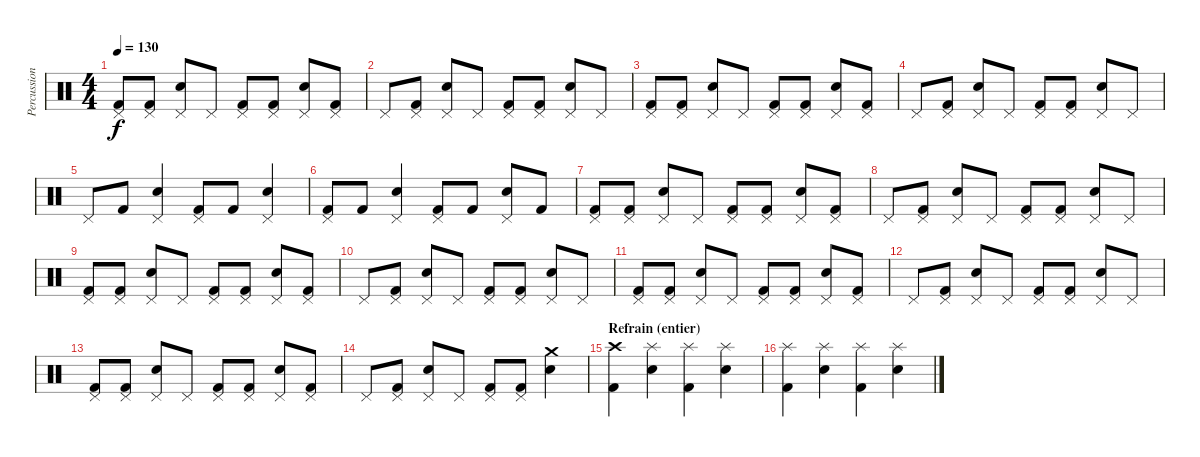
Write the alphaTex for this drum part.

\track ("Percussions" "Percussion") {instrument percussion}
\staff {score}
\articulation defaults
\ts (4 4)
\tempo 130
\clef neutral
\ks c
("Pedal Hi-Hat (hit)" "Kick (hit) 2").8{dy f} ("Pedal Hi-Hat (hit)" "Kick (hit) 2").8 ("Pedal Hi-Hat (hit)" "Electric Snare (hit)").8 "Pedal Hi-Hat (hit)".8 ("Pedal Hi-Hat (hit)" "Kick (hit) 2").8 ("Pedal Hi-Hat (hit)" "Kick (hit) 2").8 ("Pedal Hi-Hat (hit)" "Electric Snare (hit)").8 ("Pedal Hi-Hat (hit)" "Kick (hit) 2").8 |
"Pedal Hi-Hat (hit)".8 ("Pedal Hi-Hat (hit)" "Kick (hit) 2").8 ("Pedal Hi-Hat (hit)" "Electric Snare (hit)").8 "Pedal Hi-Hat (hit)".8 ("Pedal Hi-Hat (hit)" "Kick (hit) 2").8 ("Pedal Hi-Hat (hit)" "Kick (hit) 2").8 ("Pedal Hi-Hat (hit)" "Electric Snare (hit)").8 "Pedal Hi-Hat (hit)".8 |
("Pedal Hi-Hat (hit)" "Kick (hit) 2").8 ("Pedal Hi-Hat (hit)" "Kick (hit) 2").8 ("Pedal Hi-Hat (hit)" "Electric Snare (hit)").8 "Pedal Hi-Hat (hit)".8 ("Pedal Hi-Hat (hit)" "Kick (hit) 2").8 ("Pedal Hi-Hat (hit)" "Kick (hit) 2").8 ("Pedal Hi-Hat (hit)" "Electric Snare (hit)").8 ("Pedal Hi-Hat (hit)" "Kick (hit) 2").8 |
"Pedal Hi-Hat (hit)".8 ("Pedal Hi-Hat (hit)" "Kick (hit) 2").8 ("Pedal Hi-Hat (hit)" "Electric Snare (hit)").8 "Pedal Hi-Hat (hit)".8 ("Pedal Hi-Hat (hit)" "Kick (hit) 2").8 ("Pedal Hi-Hat (hit)" "Kick (hit) 2").8 ("Pedal Hi-Hat (hit)" "Electric Snare (hit)").8 "Pedal Hi-Hat (hit)".8 |
"Pedal Hi-Hat (hit)".8 "Kick (hit) 2".8 ("Pedal Hi-Hat (hit)" "Electric Snare (hit)").4 ("Pedal Hi-Hat (hit)" "Kick (hit) 2").8 "Kick (hit) 2".8 ("Pedal Hi-Hat (hit)" "Electric Snare (hit)").4 |
("Pedal Hi-Hat (hit)" "Kick (hit) 2").8 "Kick (hit) 2".8 ("Pedal Hi-Hat (hit)" "Electric Snare (hit)").4 ("Pedal Hi-Hat (hit)" "Kick (hit) 2").8 "Kick (hit) 2".8 ("Pedal Hi-Hat (hit)" "Electric Snare (hit)").8 "Kick (hit) 2".8 |
("Pedal Hi-Hat (hit)" "Kick (hit) 2").8 ("Pedal Hi-Hat (hit)" "Kick (hit) 2").8 ("Pedal Hi-Hat (hit)" "Electric Snare (hit)").8 "Pedal Hi-Hat (hit)".8 ("Pedal Hi-Hat (hit)" "Kick (hit) 2").8 ("Pedal Hi-Hat (hit)" "Kick (hit) 2").8 ("Pedal Hi-Hat (hit)" "Electric Snare (hit)").8 ("Pedal Hi-Hat (hit)" "Kick (hit) 2").8 |
"Pedal Hi-Hat (hit)".8 ("Pedal Hi-Hat (hit)" "Kick (hit) 2").8 ("Pedal Hi-Hat (hit)" "Electric Snare (hit)").8 "Pedal Hi-Hat (hit)".8 ("Pedal Hi-Hat (hit)" "Kick (hit) 2").8 ("Pedal Hi-Hat (hit)" "Kick (hit) 2").8 ("Pedal Hi-Hat (hit)" "Electric Snare (hit)").8 "Pedal Hi-Hat (hit)".8 |
("Pedal Hi-Hat (hit)" "Kick (hit) 2").8 ("Pedal Hi-Hat (hit)" "Kick (hit) 2").8 ("Pedal Hi-Hat (hit)" "Electric Snare (hit)").8 "Pedal Hi-Hat (hit)".8 ("Pedal Hi-Hat (hit)" "Kick (hit) 2").8 ("Pedal Hi-Hat (hit)" "Kick (hit) 2").8 ("Pedal Hi-Hat (hit)" "Electric Snare (hit)").8 ("Pedal Hi-Hat (hit)" "Kick (hit) 2").8 |
"Pedal Hi-Hat (hit)".8 ("Pedal Hi-Hat (hit)" "Kick (hit) 2").8 ("Pedal Hi-Hat (hit)" "Electric Snare (hit)").8 "Pedal Hi-Hat (hit)".8 ("Pedal Hi-Hat (hit)" "Kick (hit) 2").8 ("Pedal Hi-Hat (hit)" "Kick (hit) 2").8 ("Pedal Hi-Hat (hit)" "Electric Snare (hit)").8 "Pedal Hi-Hat (hit)".8 |
("Pedal Hi-Hat (hit)" "Kick (hit) 2").8 ("Pedal Hi-Hat (hit)" "Kick (hit) 2").8 ("Pedal Hi-Hat (hit)" "Electric Snare (hit)").8 "Pedal Hi-Hat (hit)".8 ("Pedal Hi-Hat (hit)" "Kick (hit) 2").8 ("Pedal Hi-Hat (hit)" "Kick (hit) 2").8 ("Pedal Hi-Hat (hit)" "Electric Snare (hit)").8 ("Pedal Hi-Hat (hit)" "Kick (hit) 2").8 |
"Pedal Hi-Hat (hit)".8 ("Pedal Hi-Hat (hit)" "Kick (hit) 2").8 ("Pedal Hi-Hat (hit)" "Electric Snare (hit)").8 "Pedal Hi-Hat (hit)".8 ("Pedal Hi-Hat (hit)" "Kick (hit) 2").8 ("Pedal Hi-Hat (hit)" "Kick (hit) 2").8 ("Pedal Hi-Hat (hit)" "Electric Snare (hit)").8 "Pedal Hi-Hat (hit)".8 |
("Pedal Hi-Hat (hit)" "Kick (hit) 2").8 ("Pedal Hi-Hat (hit)" "Kick (hit) 2").8 ("Pedal Hi-Hat (hit)" "Electric Snare (hit)").8 "Pedal Hi-Hat (hit)".8 ("Pedal Hi-Hat (hit)" "Kick (hit) 2").8 ("Pedal Hi-Hat (hit)" "Kick (hit) 2").8 ("Pedal Hi-Hat (hit)" "Electric Snare (hit)").8 ("Pedal Hi-Hat (hit)" "Kick (hit) 2").8 |
"Pedal Hi-Hat (hit)".8 ("Pedal Hi-Hat (hit)" "Kick (hit) 2").8 ("Pedal Hi-Hat (hit)" "Electric Snare (hit)").8 "Pedal Hi-Hat (hit)".8 ("Pedal Hi-Hat (hit)" "Kick (hit) 2").8 ("Pedal Hi-Hat (hit)" "Kick (hit) 2").8 ("Crash medium (hit)" "Electric Snare (hit)").4 |
\section ("" "Refrain (entier)")
("Crash high (hit)" "Kick (hit) 2").4 ("Splash (hit)" "Electric Snare (hit)").4 ("Splash (hit)" "Kick (hit) 2").4 ("Splash (hit)" "Electric Snare (hit)").4 |
("Splash (hit)" "Kick (hit) 2").4 ("Splash (hit)" "Electric Snare (hit)").4 ("Splash (hit)" "Kick (hit) 2").4 ("Splash (hit)" "Electric Snare (hit)").4
